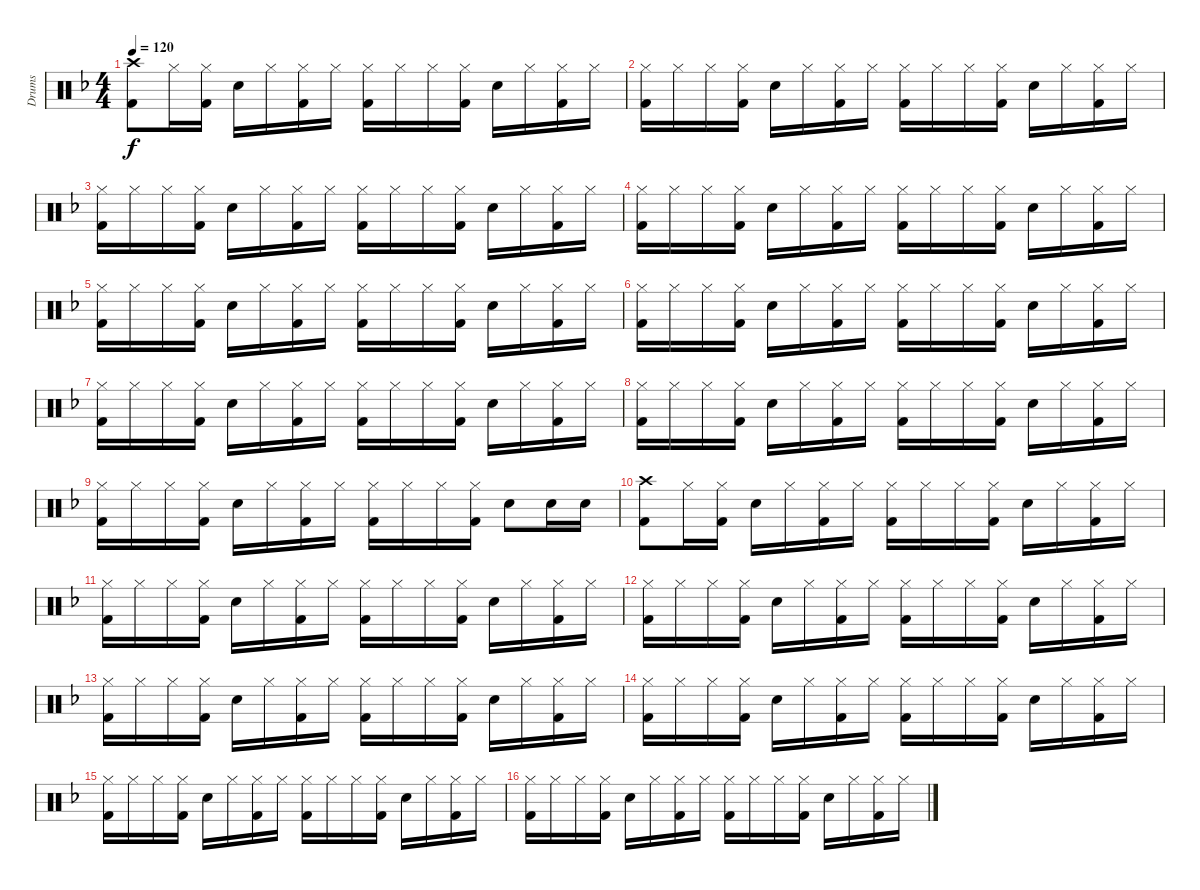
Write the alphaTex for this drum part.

\track ("Drums" "Drums") {instrument percussion}
\staff {score}
\articulation defaults
\ts (4 4)
\tempo 120
\clef neutral
\ks dminor
("Kick (hit) 2" "Crash high (hit)").8{dy f} "Hi-Hat (closed)".16 ("Kick (hit) 2" "Hi-Hat (closed)").16 "Snare (hit) 2".16 "Hi-Hat (closed)".16 ("Kick (hit) 2" "Hi-Hat (closed)").16 "Hi-Hat (closed)".16 ("Kick (hit) 2" "Hi-Hat (closed)").16 "Hi-Hat (closed)".16 "Hi-Hat (closed)".16 ("Kick (hit) 2" "Hi-Hat (closed)").16 "Snare (hit) 2".16 "Hi-Hat (closed)".16 ("Kick (hit) 2" "Hi-Hat (closed)").16 "Hi-Hat (closed)".16 |
("Kick (hit) 2" "Hi-Hat (closed)").16 "Hi-Hat (closed)".16 "Hi-Hat (closed)".16 ("Kick (hit) 2" "Hi-Hat (closed)").16 "Snare (hit) 2".16 "Hi-Hat (closed)".16 ("Kick (hit) 2" "Hi-Hat (closed)").16 "Hi-Hat (closed)".16 ("Kick (hit) 2" "Hi-Hat (closed)").16 "Hi-Hat (closed)".16 "Hi-Hat (closed)".16 ("Kick (hit) 2" "Hi-Hat (closed)").16 "Snare (hit) 2".16 "Hi-Hat (closed)".16 ("Kick (hit) 2" "Hi-Hat (closed)").16 "Hi-Hat (closed)".16 |
("Kick (hit) 2" "Hi-Hat (closed)").16 "Hi-Hat (closed)".16 "Hi-Hat (closed)".16 ("Kick (hit) 2" "Hi-Hat (closed)").16 "Snare (hit) 2".16 "Hi-Hat (closed)".16 ("Kick (hit) 2" "Hi-Hat (closed)").16 "Hi-Hat (closed)".16 ("Kick (hit) 2" "Hi-Hat (closed)").16 "Hi-Hat (closed)".16 "Hi-Hat (closed)".16 ("Kick (hit) 2" "Hi-Hat (closed)").16 "Snare (hit) 2".16 "Hi-Hat (closed)".16 ("Kick (hit) 2" "Hi-Hat (closed)").16 "Hi-Hat (closed)".16 |
("Kick (hit) 2" "Hi-Hat (closed)").16 "Hi-Hat (closed)".16 "Hi-Hat (closed)".16 ("Kick (hit) 2" "Hi-Hat (closed)").16 "Snare (hit) 2".16 "Hi-Hat (closed)".16 ("Kick (hit) 2" "Hi-Hat (closed)").16 "Hi-Hat (closed)".16 ("Kick (hit) 2" "Hi-Hat (closed)").16 "Hi-Hat (closed)".16 "Hi-Hat (closed)".16 ("Kick (hit) 2" "Hi-Hat (closed)").16 "Snare (hit) 2".16 "Hi-Hat (closed)".16 ("Kick (hit) 2" "Hi-Hat (closed)").16 "Hi-Hat (closed)".16 |
("Kick (hit) 2" "Hi-Hat (closed)").16 "Hi-Hat (closed)".16 "Hi-Hat (closed)".16 ("Kick (hit) 2" "Hi-Hat (closed)").16 "Snare (hit) 2".16 "Hi-Hat (closed)".16 ("Kick (hit) 2" "Hi-Hat (closed)").16 "Hi-Hat (closed)".16 ("Kick (hit) 2" "Hi-Hat (closed)").16 "Hi-Hat (closed)".16 "Hi-Hat (closed)".16 ("Kick (hit) 2" "Hi-Hat (closed)").16 "Snare (hit) 2".16 "Hi-Hat (closed)".16 ("Kick (hit) 2" "Hi-Hat (closed)").16 "Hi-Hat (closed)".16 |
("Kick (hit) 2" "Hi-Hat (closed)").16 "Hi-Hat (closed)".16 "Hi-Hat (closed)".16 ("Kick (hit) 2" "Hi-Hat (closed)").16 "Snare (hit) 2".16 "Hi-Hat (closed)".16 ("Kick (hit) 2" "Hi-Hat (closed)").16 "Hi-Hat (closed)".16 ("Kick (hit) 2" "Hi-Hat (closed)").16 "Hi-Hat (closed)".16 "Hi-Hat (closed)".16 ("Kick (hit) 2" "Hi-Hat (closed)").16 "Snare (hit) 2".16 "Hi-Hat (closed)".16 ("Kick (hit) 2" "Hi-Hat (closed)").16 "Hi-Hat (closed)".16 |
("Kick (hit) 2" "Hi-Hat (closed)").16 "Hi-Hat (closed)".16 "Hi-Hat (closed)".16 ("Kick (hit) 2" "Hi-Hat (closed)").16 "Snare (hit) 2".16 "Hi-Hat (closed)".16 ("Kick (hit) 2" "Hi-Hat (closed)").16 "Hi-Hat (closed)".16 ("Kick (hit) 2" "Hi-Hat (closed)").16 "Hi-Hat (closed)".16 "Hi-Hat (closed)".16 ("Kick (hit) 2" "Hi-Hat (closed)").16 "Snare (hit) 2".16 "Hi-Hat (closed)".16 ("Kick (hit) 2" "Hi-Hat (closed)").16 "Hi-Hat (closed)".16 |
("Kick (hit) 2" "Hi-Hat (closed)").16 "Hi-Hat (closed)".16 "Hi-Hat (closed)".16 ("Kick (hit) 2" "Hi-Hat (closed)").16 "Snare (hit) 2".16 "Hi-Hat (closed)".16 ("Kick (hit) 2" "Hi-Hat (closed)").16 "Hi-Hat (closed)".16 ("Kick (hit) 2" "Hi-Hat (closed)").16 "Hi-Hat (closed)".16 "Hi-Hat (closed)".16 ("Kick (hit) 2" "Hi-Hat (closed)").16 "Snare (hit) 2".16 "Hi-Hat (closed)".16 ("Kick (hit) 2" "Hi-Hat (closed)").16 "Hi-Hat (closed)".16 |
("Kick (hit) 2" "Hi-Hat (closed)").16 "Hi-Hat (closed)".16 "Hi-Hat (closed)".16 ("Kick (hit) 2" "Hi-Hat (closed)").16 "Snare (hit) 2".16 "Hi-Hat (closed)".16 ("Kick (hit) 2" "Hi-Hat (closed)").16 "Hi-Hat (closed)".16 ("Kick (hit) 2" "Hi-Hat (closed)").16 "Hi-Hat (closed)".16 "Hi-Hat (closed)".16 ("Kick (hit) 2" "Hi-Hat (closed)").16 "Snare (hit) 2".8 "Snare (hit) 2".16 "Snare (hit) 2".16 |
("Kick (hit) 2" "Crash high (hit)").8 "Hi-Hat (closed)".16 ("Kick (hit) 2" "Hi-Hat (closed)").16 "Snare (hit) 2".16 "Hi-Hat (closed)".16 ("Kick (hit) 2" "Hi-Hat (closed)").16 "Hi-Hat (closed)".16 ("Kick (hit) 2" "Hi-Hat (closed)").16 "Hi-Hat (closed)".16 "Hi-Hat (closed)".16 ("Kick (hit) 2" "Hi-Hat (closed)").16 "Snare (hit) 2".16 "Hi-Hat (closed)".16 ("Kick (hit) 2" "Hi-Hat (closed)").16 "Hi-Hat (closed)".16 |
("Kick (hit) 2" "Hi-Hat (closed)").16 "Hi-Hat (closed)".16 "Hi-Hat (closed)".16 ("Kick (hit) 2" "Hi-Hat (closed)").16 "Snare (hit) 2".16 "Hi-Hat (closed)".16 ("Kick (hit) 2" "Hi-Hat (closed)").16 "Hi-Hat (closed)".16 ("Kick (hit) 2" "Hi-Hat (closed)").16 "Hi-Hat (closed)".16 "Hi-Hat (closed)".16 ("Kick (hit) 2" "Hi-Hat (closed)").16 "Snare (hit) 2".16 "Hi-Hat (closed)".16 ("Kick (hit) 2" "Hi-Hat (closed)").16 "Hi-Hat (closed)".16 |
("Kick (hit) 2" "Hi-Hat (closed)").16 "Hi-Hat (closed)".16 "Hi-Hat (closed)".16 ("Kick (hit) 2" "Hi-Hat (closed)").16 "Snare (hit) 2".16 "Hi-Hat (closed)".16 ("Kick (hit) 2" "Hi-Hat (closed)").16 "Hi-Hat (closed)".16 ("Kick (hit) 2" "Hi-Hat (closed)").16 "Hi-Hat (closed)".16 "Hi-Hat (closed)".16 ("Kick (hit) 2" "Hi-Hat (closed)").16 "Snare (hit) 2".16 "Hi-Hat (closed)".16 ("Kick (hit) 2" "Hi-Hat (closed)").16 "Hi-Hat (closed)".16 |
("Kick (hit) 2" "Hi-Hat (closed)").16 "Hi-Hat (closed)".16 "Hi-Hat (closed)".16 ("Kick (hit) 2" "Hi-Hat (closed)").16 "Snare (hit) 2".16 "Hi-Hat (closed)".16 ("Kick (hit) 2" "Hi-Hat (closed)").16 "Hi-Hat (closed)".16 ("Kick (hit) 2" "Hi-Hat (closed)").16 "Hi-Hat (closed)".16 "Hi-Hat (closed)".16 ("Kick (hit) 2" "Hi-Hat (closed)").16 "Snare (hit) 2".16 "Hi-Hat (closed)".16 ("Kick (hit) 2" "Hi-Hat (closed)").16 "Hi-Hat (closed)".16 |
("Kick (hit) 2" "Hi-Hat (closed)").16 "Hi-Hat (closed)".16 "Hi-Hat (closed)".16 ("Kick (hit) 2" "Hi-Hat (closed)").16 "Snare (hit) 2".16 "Hi-Hat (closed)".16 ("Kick (hit) 2" "Hi-Hat (closed)").16 "Hi-Hat (closed)".16 ("Kick (hit) 2" "Hi-Hat (closed)").16 "Hi-Hat (closed)".16 "Hi-Hat (closed)".16 ("Kick (hit) 2" "Hi-Hat (closed)").16 "Snare (hit) 2".16 "Hi-Hat (closed)".16 ("Kick (hit) 2" "Hi-Hat (closed)").16 "Hi-Hat (closed)".16 |
("Kick (hit) 2" "Hi-Hat (closed)").16 "Hi-Hat (closed)".16 "Hi-Hat (closed)".16 ("Kick (hit) 2" "Hi-Hat (closed)").16 "Snare (hit) 2".16 "Hi-Hat (closed)".16 ("Kick (hit) 2" "Hi-Hat (closed)").16 "Hi-Hat (closed)".16 ("Kick (hit) 2" "Hi-Hat (closed)").16 "Hi-Hat (closed)".16 "Hi-Hat (closed)".16 ("Kick (hit) 2" "Hi-Hat (closed)").16 "Snare (hit) 2".16 "Hi-Hat (closed)".16 ("Kick (hit) 2" "Hi-Hat (closed)").16 "Hi-Hat (closed)".16 |
("Kick (hit) 2" "Hi-Hat (closed)").16 "Hi-Hat (closed)".16 "Hi-Hat (closed)".16 ("Kick (hit) 2" "Hi-Hat (closed)").16 "Snare (hit) 2".16 "Hi-Hat (closed)".16 ("Kick (hit) 2" "Hi-Hat (closed)").16 "Hi-Hat (closed)".16 ("Kick (hit) 2" "Hi-Hat (closed)").16 "Hi-Hat (closed)".16 "Hi-Hat (closed)".16 ("Kick (hit) 2" "Hi-Hat (closed)").16 "Snare (hit) 2".16 "Hi-Hat (closed)".16 ("Kick (hit) 2" "Hi-Hat (closed)").16 "Hi-Hat (closed)".16
